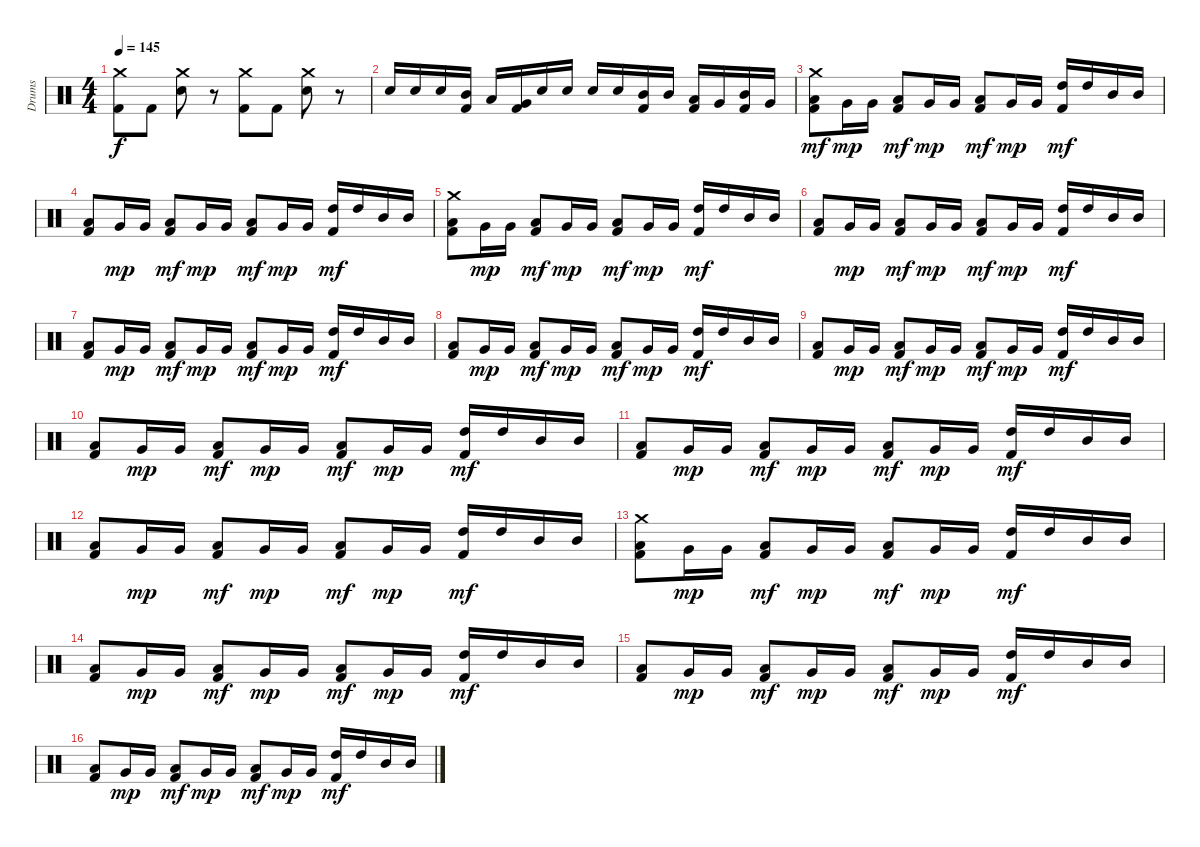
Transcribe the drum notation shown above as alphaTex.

\track ("Drums" "Drums") {instrument percussion}
\staff {score}
\articulation defaults
\ts (4 4)
\tempo 145
\clef neutral
\ks c
("Crash medium (hit)" "Kick (hit) 2").8{dy f} "Kick (hit) 2".8 ("Crash medium (hit)" "Snare (hit) 2").8 r.8 ("Crash medium (hit)" "Kick (hit) 2").8 "Kick (hit) 2".8 ("Crash medium (hit)" "Snare (hit) 2").8 r.8 |
"Snare (hit) 2".16 "Snare (hit) 2".16 "Snare (hit) 2".16 ("Mid Tom (hit)" "Kick (hit) 2").16 "Low Tom (hit)".16 ("Very Low Tom (hit)" "Kick (hit) 2").16 "Snare (hit) 2".16 "Snare (hit) 2".16 "Snare (hit) 2".16 "Snare (hit) 2".16 ("Mid Tom (hit)" "Kick (hit) 2").16 "Mid Tom (hit)".16 ("Low Tom (hit)" "Kick (hit) 2").16 "Very Low Tom (hit)".16 ("Mid Tom (hit)" "Kick (hit) 2").16 "Very Low Tom (hit)".16 |
("Crash medium (hit)" "Low Tom (hit)" "Kick (hit) 2").8{dy mf} "Very Low Tom (hit)".16{dy mp} "Very Low Tom (hit)".16 ("Low Tom (hit)" "Kick (hit) 2").8{dy mf} "Very Low Tom (hit)".16{dy mp} "Very Low Tom (hit)".16 ("Low Tom (hit)" "Kick (hit) 2").8{dy mf} "Very Low Tom (hit)".16{dy mp} "Very Low Tom (hit)".16 ("High Tom (hit)" "Kick (hit) 2").16{dy mf} "High Tom (hit)".16 "Mid Tom (hit)".16 "Mid Tom (hit)".16 |
("Low Tom (hit)" "Kick (hit) 2").8 "Very Low Tom (hit)".16{dy mp} "Very Low Tom (hit)".16 ("Low Tom (hit)" "Kick (hit) 2").8{dy mf} "Very Low Tom (hit)".16{dy mp} "Very Low Tom (hit)".16 ("Low Tom (hit)" "Kick (hit) 2").8{dy mf} "Very Low Tom (hit)".16{dy mp} "Very Low Tom (hit)".16 ("High Tom (hit)" "Kick (hit) 2").16{dy mf} "High Tom (hit)".16 "Mid Tom (hit)".16 "Mid Tom (hit)".16 |
("Crash medium (hit)" "Low Tom (hit)" "Kick (hit) 2").8 "Very Low Tom (hit)".16{dy mp} "Very Low Tom (hit)".16 ("Low Tom (hit)" "Kick (hit) 2").8{dy mf} "Very Low Tom (hit)".16{dy mp} "Very Low Tom (hit)".16 ("Low Tom (hit)" "Kick (hit) 2").8{dy mf} "Very Low Tom (hit)".16{dy mp} "Very Low Tom (hit)".16 ("High Tom (hit)" "Kick (hit) 2").16{dy mf} "High Tom (hit)".16 "Mid Tom (hit)".16 "Mid Tom (hit)".16 |
("Low Tom (hit)" "Kick (hit) 2").8 "Very Low Tom (hit)".16{dy mp} "Very Low Tom (hit)".16 ("Low Tom (hit)" "Kick (hit) 2").8{dy mf} "Very Low Tom (hit)".16{dy mp} "Very Low Tom (hit)".16 ("Low Tom (hit)" "Kick (hit) 2").8{dy mf} "Very Low Tom (hit)".16{dy mp} "Very Low Tom (hit)".16 ("High Tom (hit)" "Kick (hit) 2").16{dy mf} "High Tom (hit)".16 "Mid Tom (hit)".16 "Mid Tom (hit)".16 |
("Low Tom (hit)" "Kick (hit) 2").8 "Very Low Tom (hit)".16{dy mp} "Very Low Tom (hit)".16 ("Low Tom (hit)" "Kick (hit) 2").8{dy mf} "Very Low Tom (hit)".16{dy mp} "Very Low Tom (hit)".16 ("Low Tom (hit)" "Kick (hit) 2").8{dy mf} "Very Low Tom (hit)".16{dy mp} "Very Low Tom (hit)".16 ("High Tom (hit)" "Kick (hit) 2").16{dy mf} "High Tom (hit)".16 "Mid Tom (hit)".16 "Mid Tom (hit)".16 |
("Low Tom (hit)" "Kick (hit) 2").8 "Very Low Tom (hit)".16{dy mp} "Very Low Tom (hit)".16 ("Low Tom (hit)" "Kick (hit) 2").8{dy mf} "Very Low Tom (hit)".16{dy mp} "Very Low Tom (hit)".16 ("Low Tom (hit)" "Kick (hit) 2").8{dy mf} "Very Low Tom (hit)".16{dy mp} "Very Low Tom (hit)".16 ("High Tom (hit)" "Kick (hit) 2").16{dy mf} "High Tom (hit)".16 "Mid Tom (hit)".16 "Mid Tom (hit)".16 |
("Low Tom (hit)" "Kick (hit) 2").8 "Very Low Tom (hit)".16{dy mp} "Very Low Tom (hit)".16 ("Low Tom (hit)" "Kick (hit) 2").8{dy mf} "Very Low Tom (hit)".16{dy mp} "Very Low Tom (hit)".16 ("Low Tom (hit)" "Kick (hit) 2").8{dy mf} "Very Low Tom (hit)".16{dy mp} "Very Low Tom (hit)".16 ("High Tom (hit)" "Kick (hit) 2").16{dy mf} "High Tom (hit)".16 "Mid Tom (hit)".16 "Mid Tom (hit)".16 |
("Low Tom (hit)" "Kick (hit) 2").8 "Very Low Tom (hit)".16{dy mp} "Very Low Tom (hit)".16 ("Low Tom (hit)" "Kick (hit) 2").8{dy mf} "Very Low Tom (hit)".16{dy mp} "Very Low Tom (hit)".16 ("Low Tom (hit)" "Kick (hit) 2").8{dy mf} "Very Low Tom (hit)".16{dy mp} "Very Low Tom (hit)".16 ("High Tom (hit)" "Kick (hit) 2").16{dy mf} "High Tom (hit)".16 "Mid Tom (hit)".16 "Mid Tom (hit)".16 |
("Low Tom (hit)" "Kick (hit) 2").8 "Very Low Tom (hit)".16{dy mp} "Very Low Tom (hit)".16 ("Low Tom (hit)" "Kick (hit) 2").8{dy mf} "Very Low Tom (hit)".16{dy mp} "Very Low Tom (hit)".16 ("Low Tom (hit)" "Kick (hit) 2").8{dy mf} "Very Low Tom (hit)".16{dy mp} "Very Low Tom (hit)".16 ("High Tom (hit)" "Kick (hit) 2").16{dy mf} "High Tom (hit)".16 "Mid Tom (hit)".16 "Mid Tom (hit)".16 |
("Low Tom (hit)" "Kick (hit) 2").8 "Very Low Tom (hit)".16{dy mp} "Very Low Tom (hit)".16 ("Low Tom (hit)" "Kick (hit) 2").8{dy mf} "Very Low Tom (hit)".16{dy mp} "Very Low Tom (hit)".16 ("Low Tom (hit)" "Kick (hit) 2").8{dy mf} "Very Low Tom (hit)".16{dy mp} "Very Low Tom (hit)".16 ("High Tom (hit)" "Kick (hit) 2").16{dy mf} "High Tom (hit)".16 "Mid Tom (hit)".16 "Mid Tom (hit)".16 |
("Crash medium (hit)" "Low Tom (hit)" "Kick (hit) 2").8 "Very Low Tom (hit)".16{dy mp} "Very Low Tom (hit)".16 ("Low Tom (hit)" "Kick (hit) 2").8{dy mf} "Very Low Tom (hit)".16{dy mp} "Very Low Tom (hit)".16 ("Low Tom (hit)" "Kick (hit) 2").8{dy mf} "Very Low Tom (hit)".16{dy mp} "Very Low Tom (hit)".16 ("High Tom (hit)" "Kick (hit) 2").16{dy mf} "High Tom (hit)".16 "Mid Tom (hit)".16 "Mid Tom (hit)".16 |
("Low Tom (hit)" "Kick (hit) 2").8 "Very Low Tom (hit)".16{dy mp} "Very Low Tom (hit)".16 ("Low Tom (hit)" "Kick (hit) 2").8{dy mf} "Very Low Tom (hit)".16{dy mp} "Very Low Tom (hit)".16 ("Low Tom (hit)" "Kick (hit) 2").8{dy mf} "Very Low Tom (hit)".16{dy mp} "Very Low Tom (hit)".16 ("High Tom (hit)" "Kick (hit) 2").16{dy mf} "High Tom (hit)".16 "Mid Tom (hit)".16 "Mid Tom (hit)".16 |
("Low Tom (hit)" "Kick (hit) 2").8 "Very Low Tom (hit)".16{dy mp} "Very Low Tom (hit)".16 ("Low Tom (hit)" "Kick (hit) 2").8{dy mf} "Very Low Tom (hit)".16{dy mp} "Very Low Tom (hit)".16 ("Low Tom (hit)" "Kick (hit) 2").8{dy mf} "Very Low Tom (hit)".16{dy mp} "Very Low Tom (hit)".16 ("High Tom (hit)" "Kick (hit) 2").16{dy mf} "High Tom (hit)".16 "Mid Tom (hit)".16 "Mid Tom (hit)".16 |
("Low Tom (hit)" "Kick (hit) 2").8 "Very Low Tom (hit)".16{dy mp} "Very Low Tom (hit)".16 ("Low Tom (hit)" "Kick (hit) 2").8{dy mf} "Very Low Tom (hit)".16{dy mp} "Very Low Tom (hit)".16 ("Low Tom (hit)" "Kick (hit) 2").8{dy mf} "Very Low Tom (hit)".16{dy mp} "Very Low Tom (hit)".16 ("High Tom (hit)" "Kick (hit) 2").16{dy mf} "High Tom (hit)".16 "Mid Tom (hit)".16 "Mid Tom (hit)".16
